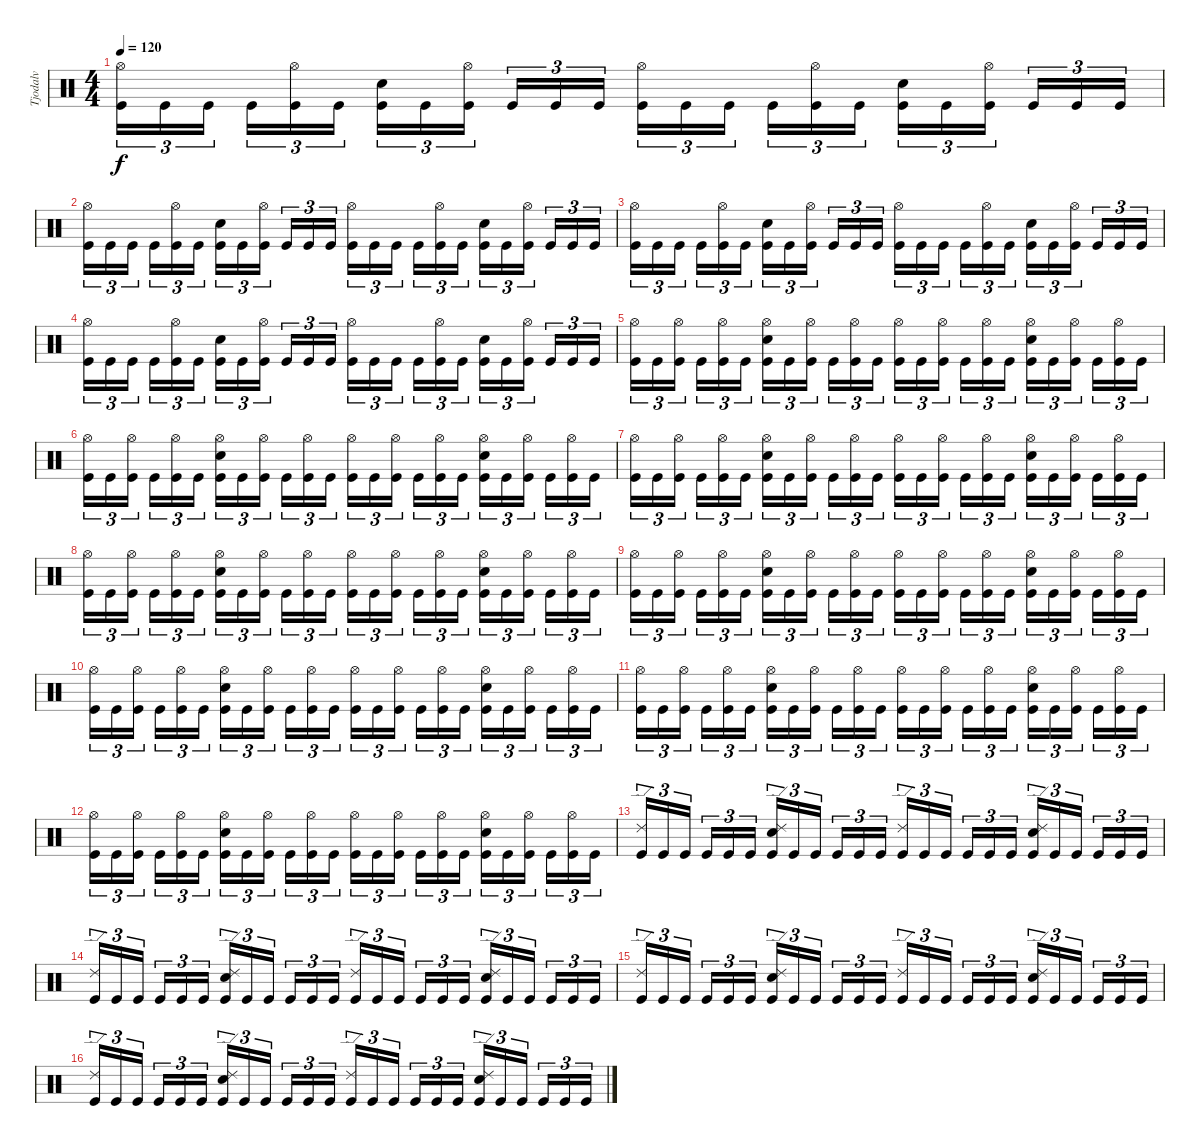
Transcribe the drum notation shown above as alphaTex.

\track ("Tjodalv" "Tjodalv") {instrument percussion}
\staff {score}
\articulation defaults
\ts (4 4)
\tempo 120
\clef neutral
\ks c
("Hi-Hat (open)" "Kick (hit)").16{tu (3 2) dy f} "Kick (hit)".16{tu (3 2)} "Kick (hit)".16{tu (3 2)} "Kick (hit)".16{tu (3 2)} ("Hi-Hat (open)" "Kick (hit)").16{tu (3 2)} "Kick (hit)".16{tu (3 2)} ("Snare (hit) 2" "Kick (hit)").16{tu (3 2)} "Kick (hit)".16{tu (3 2)} ("Hi-Hat (open)" "Kick (hit)").16{tu (3 2)} "Kick (hit)".16{tu (3 2)} "Kick (hit)".16{tu (3 2)} "Kick (hit)".16{tu (3 2)} ("Hi-Hat (open)" "Kick (hit)").16{tu (3 2)} "Kick (hit)".16{tu (3 2)} "Kick (hit)".16{tu (3 2)} "Kick (hit)".16{tu (3 2)} ("Hi-Hat (open)" "Kick (hit)").16{tu (3 2)} "Kick (hit)".16{tu (3 2)} ("Snare (hit) 2" "Kick (hit)").16{tu (3 2)} "Kick (hit)".16{tu (3 2)} ("Hi-Hat (open)" "Kick (hit)").16{tu (3 2)} "Kick (hit)".16{tu (3 2)} "Kick (hit)".16{tu (3 2)} "Kick (hit)".16{tu (3 2)} |
("Hi-Hat (open)" "Kick (hit)").16{tu (3 2)} "Kick (hit)".16{tu (3 2)} "Kick (hit)".16{tu (3 2)} "Kick (hit)".16{tu (3 2)} ("Hi-Hat (open)" "Kick (hit)").16{tu (3 2)} "Kick (hit)".16{tu (3 2)} ("Snare (hit) 2" "Kick (hit)").16{tu (3 2)} "Kick (hit)".16{tu (3 2)} ("Hi-Hat (open)" "Kick (hit)").16{tu (3 2)} "Kick (hit)".16{tu (3 2)} "Kick (hit)".16{tu (3 2)} "Kick (hit)".16{tu (3 2)} ("Hi-Hat (open)" "Kick (hit)").16{tu (3 2)} "Kick (hit)".16{tu (3 2)} "Kick (hit)".16{tu (3 2)} "Kick (hit)".16{tu (3 2)} ("Hi-Hat (open)" "Kick (hit)").16{tu (3 2)} "Kick (hit)".16{tu (3 2)} ("Snare (hit) 2" "Kick (hit)").16{tu (3 2)} "Kick (hit)".16{tu (3 2)} ("Hi-Hat (open)" "Kick (hit)").16{tu (3 2)} "Kick (hit)".16{tu (3 2)} "Kick (hit)".16{tu (3 2)} "Kick (hit)".16{tu (3 2)} |
("Hi-Hat (open)" "Kick (hit)").16{tu (3 2)} "Kick (hit)".16{tu (3 2)} "Kick (hit)".16{tu (3 2)} "Kick (hit)".16{tu (3 2)} ("Hi-Hat (open)" "Kick (hit)").16{tu (3 2)} "Kick (hit)".16{tu (3 2)} ("Snare (hit) 2" "Kick (hit)").16{tu (3 2)} "Kick (hit)".16{tu (3 2)} ("Hi-Hat (open)" "Kick (hit)").16{tu (3 2)} "Kick (hit)".16{tu (3 2)} "Kick (hit)".16{tu (3 2)} "Kick (hit)".16{tu (3 2)} ("Hi-Hat (open)" "Kick (hit)").16{tu (3 2)} "Kick (hit)".16{tu (3 2)} "Kick (hit)".16{tu (3 2)} "Kick (hit)".16{tu (3 2)} ("Hi-Hat (open)" "Kick (hit)").16{tu (3 2)} "Kick (hit)".16{tu (3 2)} ("Snare (hit) 2" "Kick (hit)").16{tu (3 2)} "Kick (hit)".16{tu (3 2)} ("Hi-Hat (open)" "Kick (hit)").16{tu (3 2)} "Kick (hit)".16{tu (3 2)} "Kick (hit)".16{tu (3 2)} "Kick (hit)".16{tu (3 2)} |
("Hi-Hat (open)" "Kick (hit)").16{tu (3 2)} "Kick (hit)".16{tu (3 2)} "Kick (hit)".16{tu (3 2)} "Kick (hit)".16{tu (3 2)} ("Hi-Hat (open)" "Kick (hit)").16{tu (3 2)} "Kick (hit)".16{tu (3 2)} ("Snare (hit) 2" "Kick (hit)").16{tu (3 2)} "Kick (hit)".16{tu (3 2)} ("Hi-Hat (open)" "Kick (hit)").16{tu (3 2)} "Kick (hit)".16{tu (3 2)} "Kick (hit)".16{tu (3 2)} "Kick (hit)".16{tu (3 2)} ("Hi-Hat (open)" "Kick (hit)").16{tu (3 2)} "Kick (hit)".16{tu (3 2)} "Kick (hit)".16{tu (3 2)} "Kick (hit)".16{tu (3 2)} ("Hi-Hat (open)" "Kick (hit)").16{tu (3 2)} "Kick (hit)".16{tu (3 2)} ("Snare (hit) 2" "Kick (hit)").16{tu (3 2)} "Kick (hit)".16{tu (3 2)} ("Hi-Hat (open)" "Kick (hit)").16{tu (3 2)} "Kick (hit)".16{tu (3 2)} "Kick (hit)".16{tu (3 2)} "Kick (hit)".16{tu (3 2)} |
("Hi-Hat (open)" "Kick (hit)").16{tu (3 2)} "Kick (hit)".16{tu (3 2)} ("Hi-Hat (open)" "Kick (hit)").16{tu (3 2)} "Kick (hit)".16{tu (3 2)} ("Hi-Hat (open)" "Kick (hit)").16{tu (3 2)} "Kick (hit)".16{tu (3 2)} ("Hi-Hat (open)" "Snare (hit) 2" "Kick (hit)").16{tu (3 2)} "Kick (hit)".16{tu (3 2)} ("Hi-Hat (open)" "Kick (hit)").16{tu (3 2)} "Kick (hit)".16{tu (3 2)} ("Hi-Hat (open)" "Kick (hit)").16{tu (3 2)} "Kick (hit)".16{tu (3 2)} ("Hi-Hat (open)" "Kick (hit)").16{tu (3 2)} "Kick (hit)".16{tu (3 2)} ("Hi-Hat (open)" "Kick (hit)").16{tu (3 2)} "Kick (hit)".16{tu (3 2)} ("Hi-Hat (open)" "Kick (hit)").16{tu (3 2)} "Kick (hit)".16{tu (3 2)} ("Hi-Hat (open)" "Snare (hit) 2" "Kick (hit)").16{tu (3 2)} "Kick (hit)".16{tu (3 2)} ("Hi-Hat (open)" "Kick (hit)").16{tu (3 2)} "Kick (hit)".16{tu (3 2)} ("Hi-Hat (open)" "Kick (hit)").16{tu (3 2)} "Kick (hit)".16{tu (3 2)} |
("Hi-Hat (open)" "Kick (hit)").16{tu (3 2)} "Kick (hit)".16{tu (3 2)} ("Hi-Hat (open)" "Kick (hit)").16{tu (3 2)} "Kick (hit)".16{tu (3 2)} ("Hi-Hat (open)" "Kick (hit)").16{tu (3 2)} "Kick (hit)".16{tu (3 2)} ("Hi-Hat (open)" "Snare (hit) 2" "Kick (hit)").16{tu (3 2)} "Kick (hit)".16{tu (3 2)} ("Hi-Hat (open)" "Kick (hit)").16{tu (3 2)} "Kick (hit)".16{tu (3 2)} ("Hi-Hat (open)" "Kick (hit)").16{tu (3 2)} "Kick (hit)".16{tu (3 2)} ("Hi-Hat (open)" "Kick (hit)").16{tu (3 2)} "Kick (hit)".16{tu (3 2)} ("Hi-Hat (open)" "Kick (hit)").16{tu (3 2)} "Kick (hit)".16{tu (3 2)} ("Hi-Hat (open)" "Kick (hit)").16{tu (3 2)} "Kick (hit)".16{tu (3 2)} ("Hi-Hat (open)" "Snare (hit) 2" "Kick (hit)").16{tu (3 2)} "Kick (hit)".16{tu (3 2)} ("Hi-Hat (open)" "Kick (hit)").16{tu (3 2)} "Kick (hit)".16{tu (3 2)} ("Hi-Hat (open)" "Kick (hit)").16{tu (3 2)} "Kick (hit)".16{tu (3 2)} |
("Hi-Hat (open)" "Kick (hit)").16{tu (3 2)} "Kick (hit)".16{tu (3 2)} ("Hi-Hat (open)" "Kick (hit)").16{tu (3 2)} "Kick (hit)".16{tu (3 2)} ("Hi-Hat (open)" "Kick (hit)").16{tu (3 2)} "Kick (hit)".16{tu (3 2)} ("Hi-Hat (open)" "Snare (hit) 2" "Kick (hit)").16{tu (3 2)} "Kick (hit)".16{tu (3 2)} ("Hi-Hat (open)" "Kick (hit)").16{tu (3 2)} "Kick (hit)".16{tu (3 2)} ("Hi-Hat (open)" "Kick (hit)").16{tu (3 2)} "Kick (hit)".16{tu (3 2)} ("Hi-Hat (open)" "Kick (hit)").16{tu (3 2)} "Kick (hit)".16{tu (3 2)} ("Hi-Hat (open)" "Kick (hit)").16{tu (3 2)} "Kick (hit)".16{tu (3 2)} ("Hi-Hat (open)" "Kick (hit)").16{tu (3 2)} "Kick (hit)".16{tu (3 2)} ("Hi-Hat (open)" "Snare (hit) 2" "Kick (hit)").16{tu (3 2)} "Kick (hit)".16{tu (3 2)} ("Hi-Hat (open)" "Kick (hit)").16{tu (3 2)} "Kick (hit)".16{tu (3 2)} ("Hi-Hat (open)" "Kick (hit)").16{tu (3 2)} "Kick (hit)".16{tu (3 2)} |
("Hi-Hat (open)" "Kick (hit)").16{tu (3 2)} "Kick (hit)".16{tu (3 2)} ("Hi-Hat (open)" "Kick (hit)").16{tu (3 2)} "Kick (hit)".16{tu (3 2)} ("Hi-Hat (open)" "Kick (hit)").16{tu (3 2)} "Kick (hit)".16{tu (3 2)} ("Hi-Hat (open)" "Snare (hit) 2" "Kick (hit)").16{tu (3 2)} "Kick (hit)".16{tu (3 2)} ("Hi-Hat (open)" "Kick (hit)").16{tu (3 2)} "Kick (hit)".16{tu (3 2)} ("Hi-Hat (open)" "Kick (hit)").16{tu (3 2)} "Kick (hit)".16{tu (3 2)} ("Hi-Hat (open)" "Kick (hit)").16{tu (3 2)} "Kick (hit)".16{tu (3 2)} ("Hi-Hat (open)" "Kick (hit)").16{tu (3 2)} "Kick (hit)".16{tu (3 2)} ("Hi-Hat (open)" "Kick (hit)").16{tu (3 2)} "Kick (hit)".16{tu (3 2)} ("Hi-Hat (open)" "Snare (hit) 2" "Kick (hit)").16{tu (3 2)} "Kick (hit)".16{tu (3 2)} ("Hi-Hat (open)" "Kick (hit)").16{tu (3 2)} "Kick (hit)".16{tu (3 2)} ("Hi-Hat (open)" "Kick (hit)").16{tu (3 2)} "Kick (hit)".16{tu (3 2)} |
("Hi-Hat (open)" "Kick (hit)").16{tu (3 2)} "Kick (hit)".16{tu (3 2)} ("Hi-Hat (open)" "Kick (hit)").16{tu (3 2)} "Kick (hit)".16{tu (3 2)} ("Hi-Hat (open)" "Kick (hit)").16{tu (3 2)} "Kick (hit)".16{tu (3 2)} ("Hi-Hat (open)" "Snare (hit) 2" "Kick (hit)").16{tu (3 2)} "Kick (hit)".16{tu (3 2)} ("Hi-Hat (open)" "Kick (hit)").16{tu (3 2)} "Kick (hit)".16{tu (3 2)} ("Hi-Hat (open)" "Kick (hit)").16{tu (3 2)} "Kick (hit)".16{tu (3 2)} ("Hi-Hat (open)" "Kick (hit)").16{tu (3 2)} "Kick (hit)".16{tu (3 2)} ("Hi-Hat (open)" "Kick (hit)").16{tu (3 2)} "Kick (hit)".16{tu (3 2)} ("Hi-Hat (open)" "Kick (hit)").16{tu (3 2)} "Kick (hit)".16{tu (3 2)} ("Hi-Hat (open)" "Snare (hit) 2" "Kick (hit)").16{tu (3 2)} "Kick (hit)".16{tu (3 2)} ("Hi-Hat (open)" "Kick (hit)").16{tu (3 2)} "Kick (hit)".16{tu (3 2)} ("Hi-Hat (open)" "Kick (hit)").16{tu (3 2)} "Kick (hit)".16{tu (3 2)} |
("Hi-Hat (open)" "Kick (hit)").16{tu (3 2)} "Kick (hit)".16{tu (3 2)} ("Hi-Hat (open)" "Kick (hit)").16{tu (3 2)} "Kick (hit)".16{tu (3 2)} ("Hi-Hat (open)" "Kick (hit)").16{tu (3 2)} "Kick (hit)".16{tu (3 2)} ("Hi-Hat (open)" "Snare (hit) 2" "Kick (hit)").16{tu (3 2)} "Kick (hit)".16{tu (3 2)} ("Hi-Hat (open)" "Kick (hit)").16{tu (3 2)} "Kick (hit)".16{tu (3 2)} ("Hi-Hat (open)" "Kick (hit)").16{tu (3 2)} "Kick (hit)".16{tu (3 2)} ("Hi-Hat (open)" "Kick (hit)").16{tu (3 2)} "Kick (hit)".16{tu (3 2)} ("Hi-Hat (open)" "Kick (hit)").16{tu (3 2)} "Kick (hit)".16{tu (3 2)} ("Hi-Hat (open)" "Kick (hit)").16{tu (3 2)} "Kick (hit)".16{tu (3 2)} ("Hi-Hat (open)" "Snare (hit) 2" "Kick (hit)").16{tu (3 2)} "Kick (hit)".16{tu (3 2)} ("Hi-Hat (open)" "Kick (hit)").16{tu (3 2)} "Kick (hit)".16{tu (3 2)} ("Hi-Hat (open)" "Kick (hit)").16{tu (3 2)} "Kick (hit)".16{tu (3 2)} |
("Hi-Hat (open)" "Kick (hit)").16{tu (3 2)} "Kick (hit)".16{tu (3 2)} ("Hi-Hat (open)" "Kick (hit)").16{tu (3 2)} "Kick (hit)".16{tu (3 2)} ("Hi-Hat (open)" "Kick (hit)").16{tu (3 2)} "Kick (hit)".16{tu (3 2)} ("Hi-Hat (open)" "Snare (hit) 2" "Kick (hit)").16{tu (3 2)} "Kick (hit)".16{tu (3 2)} ("Hi-Hat (open)" "Kick (hit)").16{tu (3 2)} "Kick (hit)".16{tu (3 2)} ("Hi-Hat (open)" "Kick (hit)").16{tu (3 2)} "Kick (hit)".16{tu (3 2)} ("Hi-Hat (open)" "Kick (hit)").16{tu (3 2)} "Kick (hit)".16{tu (3 2)} ("Hi-Hat (open)" "Kick (hit)").16{tu (3 2)} "Kick (hit)".16{tu (3 2)} ("Hi-Hat (open)" "Kick (hit)").16{tu (3 2)} "Kick (hit)".16{tu (3 2)} ("Hi-Hat (open)" "Snare (hit) 2" "Kick (hit)").16{tu (3 2)} "Kick (hit)".16{tu (3 2)} ("Hi-Hat (open)" "Kick (hit)").16{tu (3 2)} "Kick (hit)".16{tu (3 2)} ("Hi-Hat (open)" "Kick (hit)").16{tu (3 2)} "Kick (hit)".16{tu (3 2)} |
("Hi-Hat (open)" "Kick (hit)").16{tu (3 2)} "Kick (hit)".16{tu (3 2)} ("Hi-Hat (open)" "Kick (hit)").16{tu (3 2)} "Kick (hit)".16{tu (3 2)} ("Hi-Hat (open)" "Kick (hit)").16{tu (3 2)} "Kick (hit)".16{tu (3 2)} ("Hi-Hat (open)" "Snare (hit) 2" "Kick (hit)").16{tu (3 2)} "Kick (hit)".16{tu (3 2)} ("Hi-Hat (open)" "Kick (hit)").16{tu (3 2)} "Kick (hit)".16{tu (3 2)} ("Hi-Hat (open)" "Kick (hit)").16{tu (3 2)} "Kick (hit)".16{tu (3 2)} ("Hi-Hat (open)" "Kick (hit)").16{tu (3 2)} "Kick (hit)".16{tu (3 2)} ("Hi-Hat (open)" "Kick (hit)").16{tu (3 2)} "Kick (hit)".16{tu (3 2)} ("Hi-Hat (open)" "Kick (hit)").16{tu (3 2)} "Kick (hit)".16{tu (3 2)} ("Hi-Hat (open)" "Snare (hit) 2" "Kick (hit)").16{tu (3 2)} "Kick (hit)".16{tu (3 2)} ("Hi-Hat (open)" "Kick (hit)").16{tu (3 2)} "Kick (hit)".16{tu (3 2)} ("Hi-Hat (open)" "Kick (hit)").16{tu (3 2)} "Kick (hit)".16{tu (3 2)} |
("Ride (edge) 2" "Kick (hit)").16{tu (3 2)} "Kick (hit)".16{tu (3 2)} "Kick (hit)".16{tu (3 2)} "Kick (hit)".16{tu (3 2)} "Kick (hit)".16{tu (3 2)} "Kick (hit)".16{tu (3 2)} ("Ride (edge) 2" "Snare (hit) 2" "Kick (hit)").16{tu (3 2)} "Kick (hit)".16{tu (3 2)} "Kick (hit)".16{tu (3 2)} "Kick (hit)".16{tu (3 2)} "Kick (hit)".16{tu (3 2)} "Kick (hit)".16{tu (3 2)} ("Ride (edge) 2" "Kick (hit)").16{tu (3 2)} "Kick (hit)".16{tu (3 2)} "Kick (hit)".16{tu (3 2)} "Kick (hit)".16{tu (3 2)} "Kick (hit)".16{tu (3 2)} "Kick (hit)".16{tu (3 2)} ("Ride (edge) 2" "Snare (hit) 2" "Kick (hit)").16{tu (3 2)} "Kick (hit)".16{tu (3 2)} "Kick (hit)".16{tu (3 2)} "Kick (hit)".16{tu (3 2)} "Kick (hit)".16{tu (3 2)} "Kick (hit)".16{tu (3 2)} |
("Ride (edge) 2" "Kick (hit)").16{tu (3 2)} "Kick (hit)".16{tu (3 2)} "Kick (hit)".16{tu (3 2)} "Kick (hit)".16{tu (3 2)} "Kick (hit)".16{tu (3 2)} "Kick (hit)".16{tu (3 2)} ("Ride (edge) 2" "Snare (hit) 2" "Kick (hit)").16{tu (3 2)} "Kick (hit)".16{tu (3 2)} "Kick (hit)".16{tu (3 2)} "Kick (hit)".16{tu (3 2)} "Kick (hit)".16{tu (3 2)} "Kick (hit)".16{tu (3 2)} ("Ride (edge) 2" "Kick (hit)").16{tu (3 2)} "Kick (hit)".16{tu (3 2)} "Kick (hit)".16{tu (3 2)} "Kick (hit)".16{tu (3 2)} "Kick (hit)".16{tu (3 2)} "Kick (hit)".16{tu (3 2)} ("Ride (edge) 2" "Snare (hit) 2" "Kick (hit)").16{tu (3 2)} "Kick (hit)".16{tu (3 2)} "Kick (hit)".16{tu (3 2)} "Kick (hit)".16{tu (3 2)} "Kick (hit)".16{tu (3 2)} "Kick (hit)".16{tu (3 2)} |
("Ride (edge) 2" "Kick (hit)").16{tu (3 2)} "Kick (hit)".16{tu (3 2)} "Kick (hit)".16{tu (3 2)} "Kick (hit)".16{tu (3 2)} "Kick (hit)".16{tu (3 2)} "Kick (hit)".16{tu (3 2)} ("Ride (edge) 2" "Snare (hit) 2" "Kick (hit)").16{tu (3 2)} "Kick (hit)".16{tu (3 2)} "Kick (hit)".16{tu (3 2)} "Kick (hit)".16{tu (3 2)} "Kick (hit)".16{tu (3 2)} "Kick (hit)".16{tu (3 2)} ("Ride (edge) 2" "Kick (hit)").16{tu (3 2)} "Kick (hit)".16{tu (3 2)} "Kick (hit)".16{tu (3 2)} "Kick (hit)".16{tu (3 2)} "Kick (hit)".16{tu (3 2)} "Kick (hit)".16{tu (3 2)} ("Ride (edge) 2" "Snare (hit) 2" "Kick (hit)").16{tu (3 2)} "Kick (hit)".16{tu (3 2)} "Kick (hit)".16{tu (3 2)} "Kick (hit)".16{tu (3 2)} "Kick (hit)".16{tu (3 2)} "Kick (hit)".16{tu (3 2)} |
("Ride (edge) 2" "Kick (hit)").16{tu (3 2)} "Kick (hit)".16{tu (3 2)} "Kick (hit)".16{tu (3 2)} "Kick (hit)".16{tu (3 2)} "Kick (hit)".16{tu (3 2)} "Kick (hit)".16{tu (3 2)} ("Ride (edge) 2" "Snare (hit) 2" "Kick (hit)").16{tu (3 2)} "Kick (hit)".16{tu (3 2)} "Kick (hit)".16{tu (3 2)} "Kick (hit)".16{tu (3 2)} "Kick (hit)".16{tu (3 2)} "Kick (hit)".16{tu (3 2)} ("Ride (edge) 2" "Kick (hit)").16{tu (3 2)} "Kick (hit)".16{tu (3 2)} "Kick (hit)".16{tu (3 2)} "Kick (hit)".16{tu (3 2)} "Kick (hit)".16{tu (3 2)} "Kick (hit)".16{tu (3 2)} ("Ride (edge) 2" "Snare (hit) 2" "Kick (hit)").16{tu (3 2)} "Kick (hit)".16{tu (3 2)} "Kick (hit)".16{tu (3 2)} "Kick (hit)".16{tu (3 2)} "Kick (hit)".16{tu (3 2)} "Kick (hit)".16{tu (3 2)}
